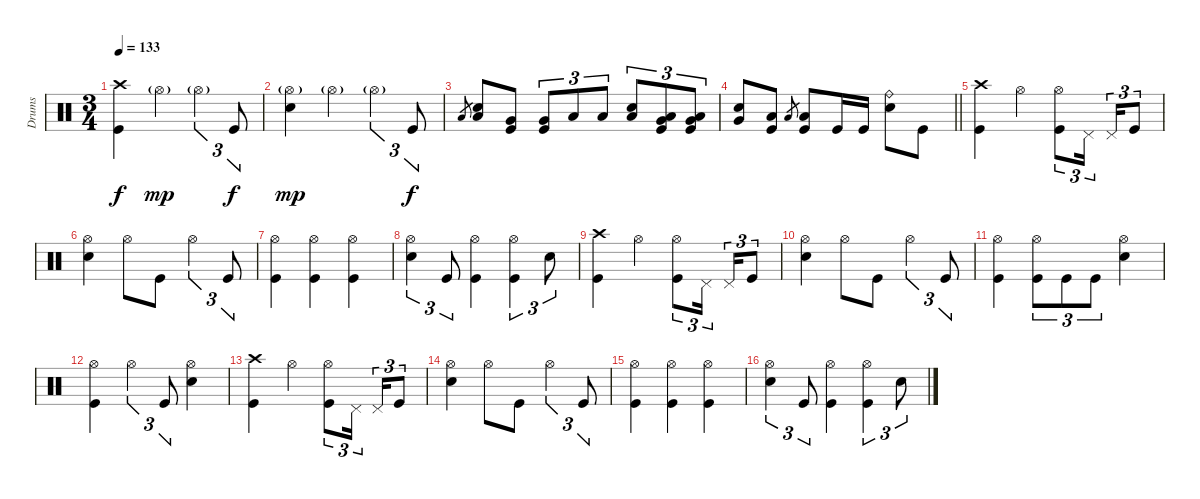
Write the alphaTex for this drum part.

\track ("Drums" "Drums") {instrument percussion}
\staff
\articulation defaults
\ts (3 4)
\tempo 133
\clef neutral
\ks c
("Crash high (hit)" "Kick (hit)").4{dy f} "Hi-Hat (open)"{g}.4{dy mp} "Hi-Hat (open)"{g}.4{tu (3 2)} "Kick (hit)".8{tu (3 2) dy f} |
("Hi-Hat (open)"{g} "Electric Snare (hit)").4{dy mp} "Hi-Hat (open)"{g}.4 "Hi-Hat (open)"{g}.4{tu (3 2)} "Kick (hit)".8{tu (3 2) dy f} |
"Low Tom (hit)".8{gr} ("Low Tom (hit)" "Electric Snare (hit)").8 ("Very Low Tom (hit)" "Kick (hit)").8 ("Very Low Tom (hit)" "Kick (hit)").8{tu (3 2)} "Low Floor Tom (hit)".8{tu (3 2)} "Low Floor Tom (hit)".8{tu (3 2)} ("Low Tom (hit)" "Electric Snare (hit)").8{tu (3 2)} ("Low Floor Tom (hit)" "Very Low Tom (hit)" "Kick (hit)").8{tu (3 2)} ("Low Floor Tom (hit)" "Very Low Tom (hit)" "Kick (hit)").8{tu (3 2)} |
\barLineRight lightlight
("Very Low Tom (hit)" "Electric Snare (hit)").8 ("Low Floor Tom (hit)" "Kick (hit)").8 "Low Floor Tom (hit)".8{gr} ("Low Floor Tom (hit)" "Kick (hit)").8 "Kick (hit)".16 "Kick (hit)".16 ("Ride (bell)" "Electric Snare (hit)").8 "Kick (hit)".8 |
\section ("" "")
("Crash high (hit)" "Kick (hit)").4 "Hi-Hat (open)".4 ("Hi-Hat (open)" "Kick (hit)").8{tu (3 2)} "Pedal Hi-Hat (hit)".16{tu (3 2) beam splitsecondary} "Pedal Hi-Hat (hit)".16{tu (3 2)} "Kick (hit)".8{tu (3 2)} |
("Hi-Hat (open)" "Electric Snare (hit)").4 "Hi-Hat (open)".8 "Kick (hit)".8 "Hi-Hat (open)".4{tu (3 2)} "Kick (hit)".8{tu (3 2)} |
("Hi-Hat (open)" "Kick (hit)").4 ("Hi-Hat (open)" "Kick (hit)").4 ("Hi-Hat (open)" "Kick (hit)").4 |
("Hi-Hat (open)" "Electric Snare (hit)").4{tu (3 2)} "Kick (hit)".8{tu (3 2)} ("Hi-Hat (open)" "Kick (hit)").4 ("Hi-Hat (open)" "Kick (hit)").4{tu (3 2)} "Electric Snare (hit)".8{tu (3 2)} |
("Crash high (hit)" "Kick (hit)").4 "Hi-Hat (open)".4 ("Hi-Hat (open)" "Kick (hit)").8{tu (3 2)} "Pedal Hi-Hat (hit)".16{tu (3 2) beam splitsecondary} "Pedal Hi-Hat (hit)".16{tu (3 2)} "Kick (hit)".8{tu (3 2)} |
("Hi-Hat (open)" "Electric Snare (hit)").4 "Hi-Hat (open)".8 "Kick (hit)".8 "Hi-Hat (open)".4{tu (3 2)} "Kick (hit)".8{tu (3 2)} |
("Hi-Hat (open)" "Kick (hit)").4 ("Hi-Hat (open)" "Kick (hit)").8{tu (3 2)} "Kick (hit)".8{tu (3 2)} "Kick (hit)".8{tu (3 2)} ("Hi-Hat (open)" "Electric Snare (hit)").4 |
("Hi-Hat (open)" "Kick (hit)").4 "Hi-Hat (open)".4{tu (3 2)} "Kick (hit)".8{tu (3 2)} ("Hi-Hat (open)" "Electric Snare (hit)").4 |
("Crash high (hit)" "Kick (hit)").4 "Hi-Hat (open)".4 ("Hi-Hat (open)" "Kick (hit)").8{tu (3 2)} "Pedal Hi-Hat (hit)".16{tu (3 2) beam splitsecondary} "Pedal Hi-Hat (hit)".16{tu (3 2)} "Kick (hit)".8{tu (3 2)} |
("Hi-Hat (open)" "Electric Snare (hit)").4 "Hi-Hat (open)".8 "Kick (hit)".8 "Hi-Hat (open)".4{tu (3 2)} "Kick (hit)".8{tu (3 2)} |
("Hi-Hat (open)" "Kick (hit)").4 ("Hi-Hat (open)" "Kick (hit)").4 ("Hi-Hat (open)" "Kick (hit)").4 |
("Hi-Hat (open)" "Electric Snare (hit)").4{tu (3 2)} "Kick (hit)".8{tu (3 2)} ("Hi-Hat (open)" "Kick (hit)").4 ("Hi-Hat (open)" "Kick (hit)").4{tu (3 2)} "Electric Snare (hit)".8{tu (3 2)}
